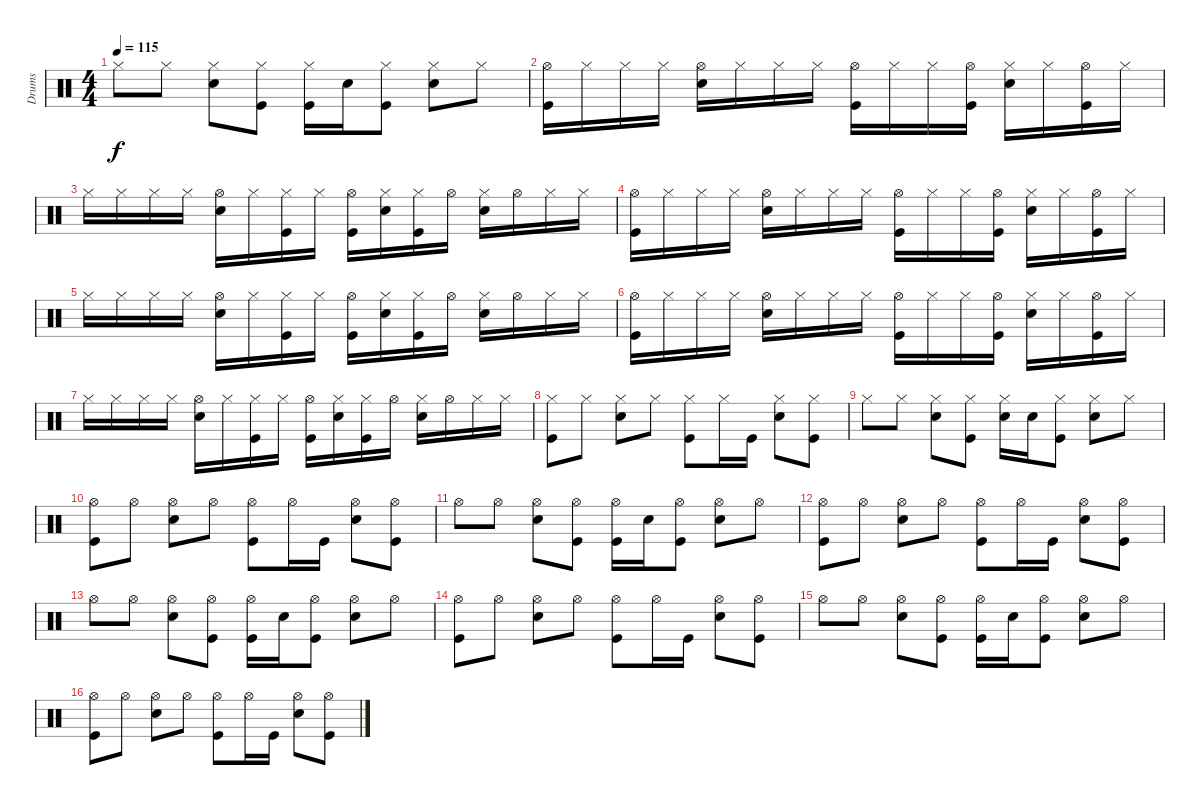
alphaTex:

\track ("Drums" "Drums") {instrument percussion}
\staff {score}
\articulation defaults
\ts (4 4)
\tempo 115
\clef neutral
\ks c "Hi-Hat (closed)".8{dy f} "Hi-Hat (closed)".8
("Hi-Hat (closed)" "Snare (hit) 2").8 ("Hi-Hat (closed)" "Kick (hit)").8 ("Hi-Hat (closed)" "Kick (hit)").16 "Snare (hit) 2".16 ("Hi-Hat (closed)" "Kick (hit)").8 ("Hi-Hat (closed)" "Snare (hit) 2").8 "Hi-Hat (closed)".8 |
("Hi-Hat (open)" "Kick (hit)").16 "Hi-Hat (closed)".16 "Hi-Hat (closed)".16 "Hi-Hat (closed)".16 ("Hi-Hat (open)" "Snare (hit) 2").16 "Hi-Hat (closed)".16 "Hi-Hat (closed)".16 "Hi-Hat (closed)".16 ("Hi-Hat (open)" "Kick (hit)").16 "Hi-Hat (closed)".16 "Hi-Hat (closed)".16 ("Hi-Hat (open)" "Kick (hit)").16 ("Hi-Hat (closed)" "Snare (hit) 2").16 "Hi-Hat (closed)".16 ("Hi-Hat (open)" "Kick (hit)").16 "Hi-Hat (closed)".16 |
"Hi-Hat (closed)".16 "Hi-Hat (closed)".16 "Hi-Hat (closed)".16 "Hi-Hat (closed)".16 ("Hi-Hat (open)" "Snare (hit) 2").16 "Hi-Hat (closed)".16 ("Hi-Hat (closed)" "Kick (hit)").16 "Hi-Hat (closed)".16 ("Hi-Hat (open)" "Kick (hit)").16 ("Hi-Hat (closed)" "Snare (hit) 2").16 ("Hi-Hat (closed)" "Kick (hit)").16 "Hi-Hat (open)".16 ("Hi-Hat (closed)" "Snare (hit) 2").16 "Hi-Hat (open)".16 "Hi-Hat (closed)".16 "Hi-Hat (closed)".16 |
("Hi-Hat (open)" "Kick (hit)").16 "Hi-Hat (closed)".16 "Hi-Hat (closed)".16 "Hi-Hat (closed)".16 ("Hi-Hat (open)" "Snare (hit) 2").16 "Hi-Hat (closed)".16 "Hi-Hat (closed)".16 "Hi-Hat (closed)".16 ("Hi-Hat (open)" "Kick (hit)").16 "Hi-Hat (closed)".16 "Hi-Hat (closed)".16 ("Hi-Hat (open)" "Kick (hit)").16 ("Hi-Hat (closed)" "Snare (hit) 2").16 "Hi-Hat (closed)".16 ("Hi-Hat (open)" "Kick (hit)").16 "Hi-Hat (closed)".16 |
"Hi-Hat (closed)".16 "Hi-Hat (closed)".16 "Hi-Hat (closed)".16 "Hi-Hat (closed)".16 ("Hi-Hat (open)" "Snare (hit) 2").16 "Hi-Hat (closed)".16 ("Hi-Hat (closed)" "Kick (hit)").16 "Hi-Hat (closed)".16 ("Hi-Hat (open)" "Kick (hit)").16 ("Hi-Hat (closed)" "Snare (hit) 2").16 ("Hi-Hat (closed)" "Kick (hit)").16 "Hi-Hat (open)".16 ("Hi-Hat (closed)" "Snare (hit) 2").16 "Hi-Hat (open)".16 "Hi-Hat (closed)".16 "Hi-Hat (closed)".16 |
("Hi-Hat (open)" "Kick (hit)").16 "Hi-Hat (closed)".16 "Hi-Hat (closed)".16 "Hi-Hat (closed)".16 ("Hi-Hat (open)" "Snare (hit) 2").16 "Hi-Hat (closed)".16 "Hi-Hat (closed)".16 "Hi-Hat (closed)".16 ("Hi-Hat (open)" "Kick (hit)").16 "Hi-Hat (closed)".16 "Hi-Hat (closed)".16 ("Hi-Hat (open)" "Kick (hit)").16 ("Hi-Hat (closed)" "Snare (hit) 2").16 "Hi-Hat (closed)".16 ("Hi-Hat (open)" "Kick (hit)").16 "Hi-Hat (closed)".16 |
"Hi-Hat (closed)".16 "Hi-Hat (closed)".16 "Hi-Hat (closed)".16 "Hi-Hat (closed)".16 ("Hi-Hat (open)" "Snare (hit) 2").16 "Hi-Hat (closed)".16 ("Hi-Hat (closed)" "Kick (hit)").16 "Hi-Hat (closed)".16 ("Hi-Hat (open)" "Kick (hit)").16 ("Hi-Hat (closed)" "Snare (hit) 2").16 ("Hi-Hat (closed)" "Kick (hit)").16 "Hi-Hat (open)".16 ("Hi-Hat (closed)" "Snare (hit) 2").16 "Hi-Hat (open)".16 "Hi-Hat (closed)".16 "Hi-Hat (closed)".16 |
("Hi-Hat (closed)" "Kick (hit)").8 "Hi-Hat (closed)".8 ("Hi-Hat (closed)" "Snare (hit) 2").8 "Hi-Hat (closed)".8 ("Hi-Hat (closed)" "Kick (hit)").8 "Hi-Hat (closed)".16 "Kick (hit)".16 ("Hi-Hat (closed)" "Snare (hit) 2").8 ("Hi-Hat (closed)" "Kick (hit)").8 |
"Hi-Hat (closed)".8 "Hi-Hat (closed)".8 ("Hi-Hat (closed)" "Snare (hit) 2").8 ("Hi-Hat (closed)" "Kick (hit)").8 ("Hi-Hat (closed)" "Snare (hit) 2").16 "Snare (hit) 2".16 ("Hi-Hat (closed)" "Kick (hit)").8 ("Hi-Hat (closed)" "Snare (hit) 2").8 "Hi-Hat (closed)".8 |
("Hi-Hat (open)" "Kick (hit)").8 "Hi-Hat (open)".8 ("Hi-Hat (open)" "Snare (hit) 2").8 "Hi-Hat (open)".8 ("Hi-Hat (open)" "Kick (hit)").8 "Hi-Hat (open)".16 "Kick (hit)".16 ("Hi-Hat (open)" "Snare (hit) 2").8 ("Hi-Hat (open)" "Kick (hit)").8 |
"Hi-Hat (open)".8 "Hi-Hat (open)".8 ("Hi-Hat (open)" "Snare (hit) 2").8 ("Hi-Hat (open)" "Kick (hit)").8 ("Hi-Hat (open)" "Kick (hit)").16 "Snare (hit) 2".16 ("Hi-Hat (open)" "Kick (hit)").8 ("Hi-Hat (open)" "Snare (hit) 2").8 "Hi-Hat (open)".8 |
("Hi-Hat (open)" "Kick (hit)").8 "Hi-Hat (open)".8 ("Hi-Hat (open)" "Snare (hit) 2").8 "Hi-Hat (open)".8 ("Hi-Hat (open)" "Kick (hit)").8 "Hi-Hat (open)".16 "Kick (hit)".16 ("Hi-Hat (open)" "Snare (hit) 2").8 ("Hi-Hat (open)" "Kick (hit)").8 |
"Hi-Hat (open)".8 "Hi-Hat (open)".8 ("Hi-Hat (open)" "Snare (hit) 2").8 ("Hi-Hat (open)" "Kick (hit)").8 ("Hi-Hat (open)" "Kick (hit)").16 "Snare (hit) 2".16 ("Hi-Hat (open)" "Kick (hit)").8 ("Hi-Hat (open)" "Snare (hit) 2").8 "Hi-Hat (open)".8 |
("Hi-Hat (open)" "Kick (hit)").8 "Hi-Hat (open)".8 ("Hi-Hat (open)" "Snare (hit) 2").8 "Hi-Hat (open)".8 ("Hi-Hat (open)" "Kick (hit)").8 "Hi-Hat (open)".16 "Kick (hit)".16 ("Hi-Hat (open)" "Snare (hit) 2").8 ("Hi-Hat (open)" "Kick (hit)").8 |
"Hi-Hat (open)".8 "Hi-Hat (open)".8 ("Hi-Hat (open)" "Snare (hit) 2").8 ("Hi-Hat (open)" "Kick (hit)").8 ("Hi-Hat (open)" "Kick (hit)").16 "Snare (hit) 2".16 ("Hi-Hat (open)" "Kick (hit)").8 ("Hi-Hat (open)" "Snare (hit) 2").8 "Hi-Hat (open)".8 |
("Hi-Hat (open)" "Kick (hit)").8 "Hi-Hat (open)".8 ("Hi-Hat (open)" "Snare (hit) 2").8 "Hi-Hat (open)".8 ("Hi-Hat (open)" "Kick (hit)").8 "Hi-Hat (open)".16 "Kick (hit)".16 ("Hi-Hat (open)" "Snare (hit) 2").8 ("Hi-Hat (open)" "Kick (hit)").8
